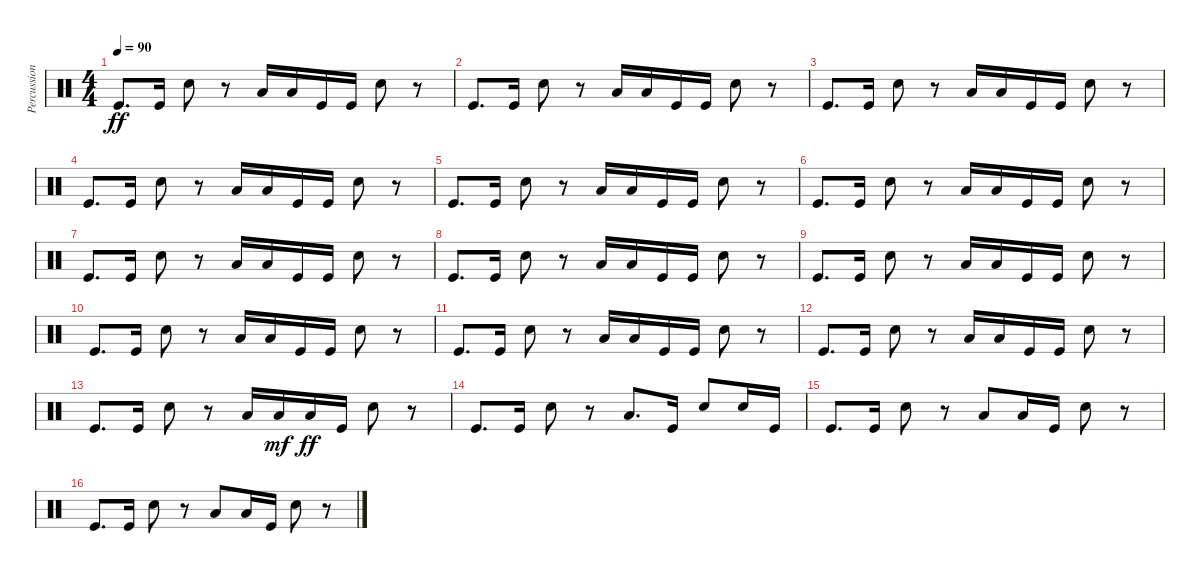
\track ("Percussion" "Percussion") {instrument percussion}
\staff {score}
\articulation defaults
\ts (4 4)
\tempo 90
\clef neutral
\ks c "Kick (hit)".8{d dy ff} "Kick (hit)".16 "Snare (hit) 2".8
r.8 "Low Floor Tom (hit)".16 "Low Floor Tom (hit)".16 "Kick (hit)".16 "Kick (hit)".16 "Snare (hit) 2".8 r.8 |
"Kick (hit)".8{d} "Kick (hit)".16 "Snare (hit) 2".8 r.8 "Low Floor Tom (hit)".16 "Low Floor Tom (hit)".16 "Kick (hit)".16 "Kick (hit)".16 "Snare (hit) 2".8 r.8 |
"Kick (hit)".8{d} "Kick (hit)".16 "Snare (hit) 2".8 r.8 "Low Floor Tom (hit)".16 "Low Floor Tom (hit)".16 "Kick (hit)".16 "Kick (hit)".16 "Snare (hit) 2".8 r.8 |
"Kick (hit)".8{d} "Kick (hit)".16 "Snare (hit) 2".8 r.8 "Low Floor Tom (hit)".16 "Low Floor Tom (hit)".16 "Kick (hit)".16 "Kick (hit)".16 "Snare (hit) 2".8 r.8 |
"Kick (hit)".8{d} "Kick (hit)".16 "Snare (hit) 2".8 r.8 "Low Floor Tom (hit)".16 "Low Floor Tom (hit)".16 "Kick (hit)".16 "Kick (hit)".16 "Snare (hit) 2".8 r.8 |
"Kick (hit)".8{d} "Kick (hit)".16 "Snare (hit) 2".8 r.8 "Low Floor Tom (hit)".16 "Low Floor Tom (hit)".16 "Kick (hit)".16 "Kick (hit)".16 "Snare (hit) 2".8 r.8 |
"Kick (hit)".8{d} "Kick (hit)".16 "Snare (hit) 2".8 r.8 "Low Floor Tom (hit)".16 "Low Floor Tom (hit)".16 "Kick (hit)".16 "Kick (hit)".16 "Snare (hit) 2".8 r.8 |
"Kick (hit)".8{d} "Kick (hit)".16 "Snare (hit) 2".8 r.8 "Low Floor Tom (hit)".16 "Low Floor Tom (hit)".16 "Kick (hit)".16 "Kick (hit)".16 "Snare (hit) 2".8 r.8 |
"Kick (hit)".8{d} "Kick (hit)".16 "Snare (hit) 2".8 r.8 "Low Floor Tom (hit)".16 "Low Floor Tom (hit)".16 "Kick (hit)".16 "Kick (hit)".16 "Snare (hit) 2".8 r.8 |
"Kick (hit)".8{d} "Kick (hit)".16 "Snare (hit) 2".8 r.8 "Low Floor Tom (hit)".16 "Low Floor Tom (hit)".16 "Kick (hit)".16 "Kick (hit)".16 "Snare (hit) 2".8 r.8 |
"Kick (hit)".8{d} "Kick (hit)".16 "Snare (hit) 2".8 r.8 "Low Floor Tom (hit)".16 "Low Floor Tom (hit)".16 "Kick (hit)".16 "Kick (hit)".16 "Snare (hit) 2".8 r.8 |
"Kick (hit)".8{d} "Kick (hit)".16 "Snare (hit) 2".8 r.8 "Low Floor Tom (hit)".16 "Low Floor Tom (hit)".16 "Kick (hit)".16 "Kick (hit)".16 "Snare (hit) 2".8 r.8 |
"Kick (hit)".8{d} "Kick (hit)".16 "Snare (hit) 2".8 r.8 "Low Floor Tom (hit)".16 "Low Floor Tom (hit)".16{dy mf} "Low Floor Tom (hit)".16{dy ff} "Kick (hit)".16 "Snare (hit) 2".8 r.8 |
"Kick (hit)".8{d} "Kick (hit)".16 "Snare (hit) 2".8 r.8 "Low Floor Tom (hit)".8{d} "Kick (hit)".16 "Snare (hit) 2".8 "Snare (hit) 2".16 "Kick (hit)".16 |
"Kick (hit)".8{d} "Kick (hit)".16 "Snare (hit) 2".8 r.8 "Low Floor Tom (hit)".8 "Low Floor Tom (hit)".16 "Kick (hit)".16 "Snare (hit) 2".8 r.8 |
"Kick (hit)".8{d} "Kick (hit)".16 "Snare (hit) 2".8 r.8 "Low Floor Tom (hit)".8 "Low Floor Tom (hit)".16 "Kick (hit)".16 "Snare (hit) 2".8 r.8
